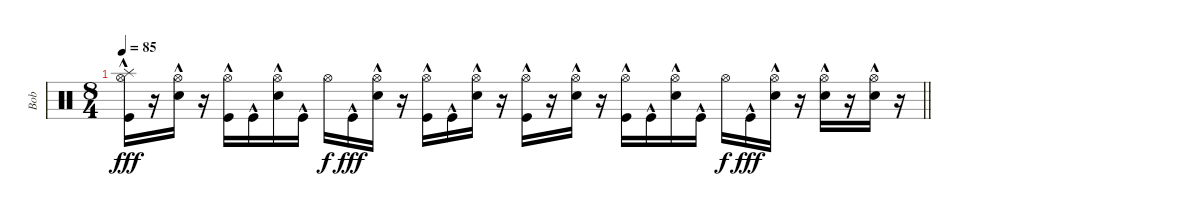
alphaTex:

\track ("Bob" "Bob") {instrument percussion}
\staff {score}
\articulation defaults
\ts (8 4)
\tempo 85
\clef neutral
\barLineRight lightlight
\ks c
("Splash (hit)"{hac} "Hi-Hat (open)" "Kick (hit)"{hac}).16{dy fff} r.16 ("Hi-Hat (open)" "Electric Snare (hit)"{hac}).16 r.16 ("Hi-Hat (open)" "Kick (hit)"{hac}).16 "Kick (hit)"{hac}.16 ("Hi-Hat (open)" "Electric Snare (hit)"{hac}).16 "Kick (hit)"{hac}.16 "Hi-Hat (open)".16{dy f} "Kick (hit)"{hac}.16{dy fff} ("Hi-Hat (open)" "Electric Snare (hit)"{hac}).16 r.16 ("Hi-Hat (open)" "Kick (hit)"{hac}).16 "Kick (hit)"{hac}.16 ("Hi-Hat (open)" "Electric Snare (hit)"{hac}).16 r.16 ("Hi-Hat (open)" "Kick (hit)"{hac}).16 r.16 ("Hi-Hat (open)" "Electric Snare (hit)"{hac}).16 r.16 ("Hi-Hat (open)" "Kick (hit)"{hac}).16 "Kick (hit)"{hac}.16 ("Hi-Hat (open)" "Electric Snare (hit)"{hac}).16 "Kick (hit)"{hac}.16 "Hi-Hat (open)".16{dy f} "Kick (hit)"{hac}.16{dy fff} ("Hi-Hat (open)" "Electric Snare (hit)"{hac}).16 r.16 ("Hi-Hat (open)" "Electric Snare (hit)"{hac}).16 r.16 ("Hi-Hat (open)" "Electric Snare (hit)"{hac}).16 r.16
